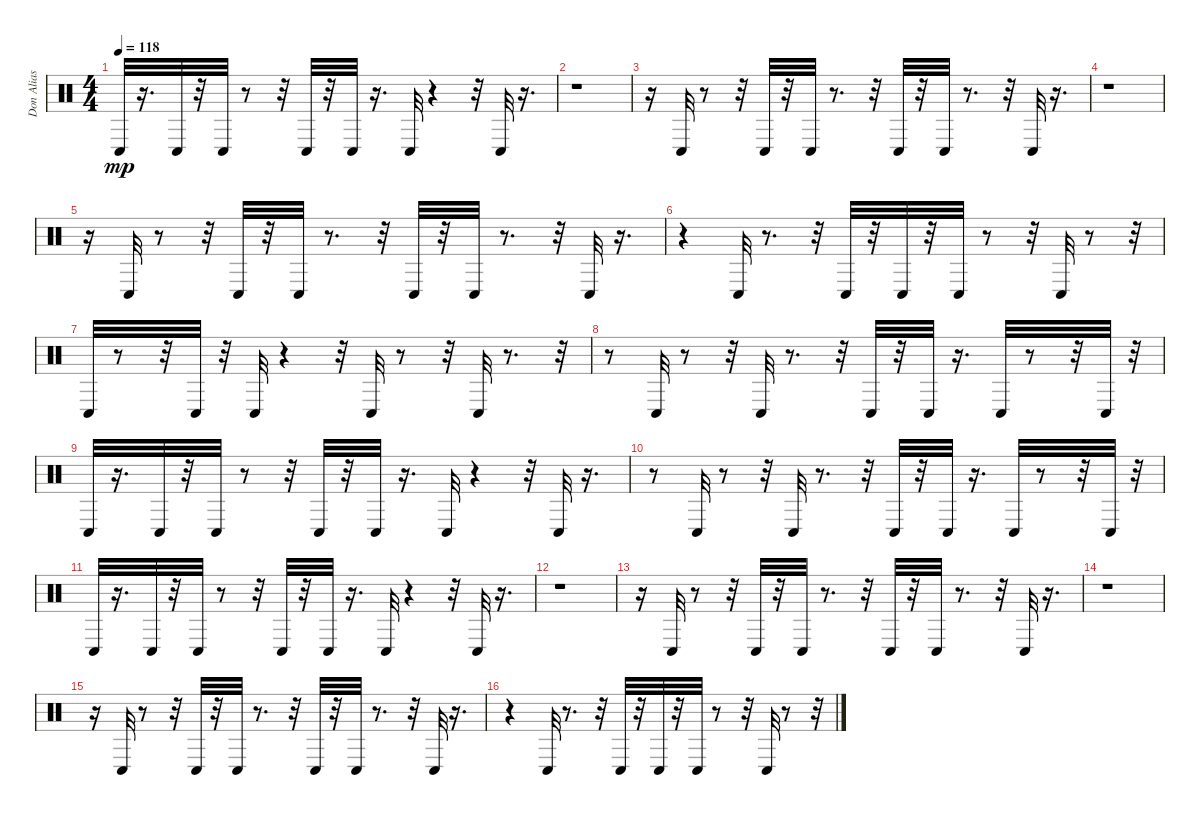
\track ("Don Alias" "Don Alias") {instrument percussion}
\staff {score}
\articulation defaults
\ts (4 4)
\tempo 118
\clef neutral
\ks c "Conga low (hit)".32{dy mp}
r.16{d} "Conga low (hit)".32 r.32 "Conga low (hit)".32 r.8 r.32 "Conga low (hit)".32 r.32 "Conga low (hit)".32 r.16{d} "Conga low (hit)".32 r.4 r.32 "Conga low (hit)".32 r.16{d} |
r.1 |
r.16 "Conga low (hit)".32 r.8 r.32 "Conga low (hit)".32 r.32 "Conga low (hit)".32 r.8{d} r.32 "Conga low (hit)".32 r.32 "Conga low (hit)".32 r.8{d} r.32 "Conga low (hit)".32 r.16{d} |
r.1 |
r.16 "Conga low (hit)".32 r.8 r.32 "Conga low (hit)".32 r.32 "Conga low (hit)".32 r.8{d} r.32 "Conga low (hit)".32 r.32 "Conga low (hit)".32 r.8{d} r.32 "Conga low (hit)".32 r.16{d} |
r.4 "Conga low (hit)".32 r.8{d} r.32 "Conga low (hit)".32 r.32 "Conga low (hit)".32 r.32 "Conga low (hit)".32 r.8 r.32 "Conga low (hit)".32 r.8 r.32 |
"Conga low (hit)".32 r.8 r.32 "Conga low (hit)".32 r.32 "Conga low (hit)".32 r.4 r.32 "Conga low (hit)".32 r.8 r.32 "Conga low (hit)".32 r.8{d} r.32 |
r.8 "Conga low (hit)".32 r.8 r.32 "Conga low (hit)".32 r.8{d} r.32 "Conga low (hit)".32 r.32 "Conga low (hit)".32 r.16{d} "Conga low (hit)".32 r.8 r.32 "Conga low (hit)".32 r.32 |
"Conga low (hit)".32 r.16{d} "Conga low (hit)".32 r.32 "Conga low (hit)".32 r.8 r.32 "Conga low (hit)".32 r.32 "Conga low (hit)".32 r.16{d} "Conga low (hit)".32 r.4 r.32 "Conga low (hit)".32 r.16{d} |
r.8 "Conga low (hit)".32 r.8 r.32 "Conga low (hit)".32 r.8{d} r.32 "Conga low (hit)".32 r.32 "Conga low (hit)".32 r.16{d} "Conga low (hit)".32 r.8 r.32 "Conga low (hit)".32 r.32 |
"Conga low (hit)".32 r.16{d} "Conga low (hit)".32 r.32 "Conga low (hit)".32 r.8 r.32 "Conga low (hit)".32 r.32 "Conga low (hit)".32 r.16{d} "Conga low (hit)".32 r.4 r.32 "Conga low (hit)".32 r.16{d} |
r.1 |
r.16 "Conga low (hit)".32 r.8 r.32 "Conga low (hit)".32 r.32 "Conga low (hit)".32 r.8{d} r.32 "Conga low (hit)".32 r.32 "Conga low (hit)".32 r.8{d} r.32 "Conga low (hit)".32 r.16{d} |
r.1 |
r.16 "Conga low (hit)".32 r.8 r.32 "Conga low (hit)".32 r.32 "Conga low (hit)".32 r.8{d} r.32 "Conga low (hit)".32 r.32 "Conga low (hit)".32 r.8{d} r.32 "Conga low (hit)".32 r.16{d} |
r.4 "Conga low (hit)".32 r.8{d} r.32 "Conga low (hit)".32 r.32 "Conga low (hit)".32 r.32 "Conga low (hit)".32 r.8 r.32 "Conga low (hit)".32 r.8 r.32
